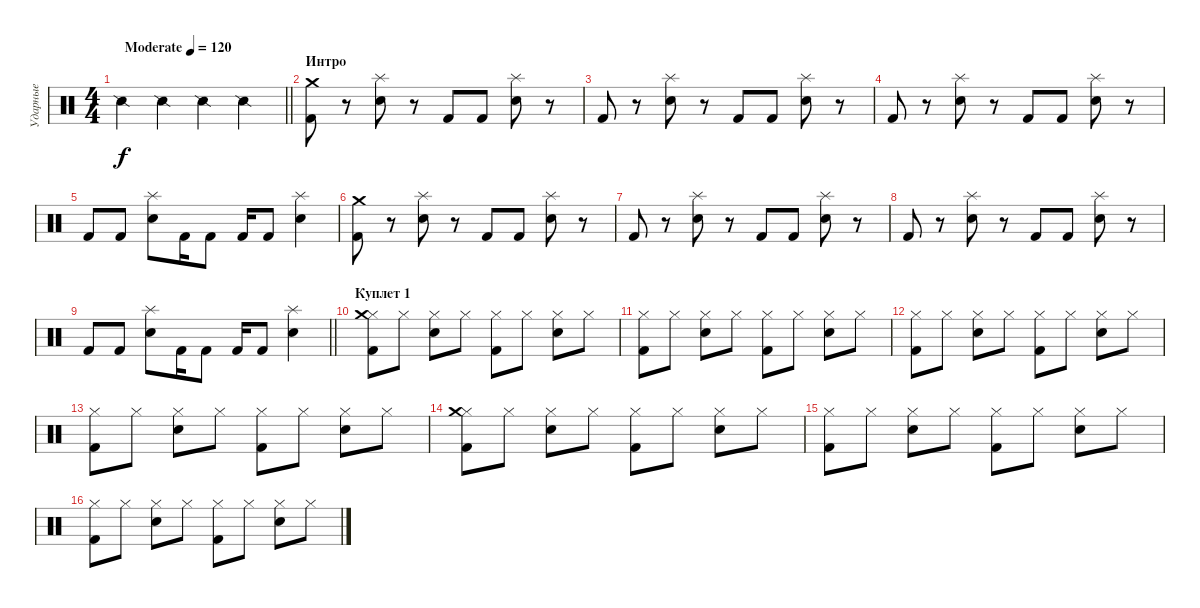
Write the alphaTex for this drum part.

\track ("Ударные" "Ударные") {instrument percussion}
\staff {score}
\articulation defaults
\ts (4 4)
\tempo (120 "Moderate")
\clef neutral
\barLineRight lightlight
\ks c "Snare (side stick) 2".4{dy f} "Snare (side stick) 2".4 "Snare (side stick) 2".4 "Snare (side stick) 2".4
|
\section ("" "Интро")
("Kick (hit) 2" "Crash medium (hit)").8 r.8 ("Electric Snare (hit)" "Splash (hit)").8 r.8 "Kick (hit) 2".8 "Kick (hit) 2".8 ("Electric Snare (hit)" "Splash (hit)").8 r.8 |
"Kick (hit) 2".8 r.8 ("Electric Snare (hit)" "Splash (hit)").8 r.8 "Kick (hit) 2".8 "Kick (hit) 2".8 ("Electric Snare (hit)" "Splash (hit)").8 r.8 |
"Kick (hit) 2".8 r.8 ("Electric Snare (hit)" "Splash (hit)").8 r.8 "Kick (hit) 2".8 "Kick (hit) 2".8 ("Electric Snare (hit)" "Splash (hit)").8 r.8 |
"Kick (hit) 2".8 "Kick (hit) 2".8 ("Electric Snare (hit)" "Splash (hit)").8 "Kick (hit) 2".16 "Kick (hit) 2".8 "Kick (hit) 2".16 "Kick (hit) 2".8 ("Electric Snare (hit)" "Splash (hit)").4 |
("Kick (hit) 2" "Crash medium (hit)").8 r.8 ("Electric Snare (hit)" "Splash (hit)").8 r.8 "Kick (hit) 2".8 "Kick (hit) 2".8 ("Electric Snare (hit)" "Splash (hit)").8 r.8 |
"Kick (hit) 2".8 r.8 ("Electric Snare (hit)" "Splash (hit)").8 r.8 "Kick (hit) 2".8 "Kick (hit) 2".8 ("Electric Snare (hit)" "Splash (hit)").8 r.8 |
"Kick (hit) 2".8 r.8 ("Electric Snare (hit)" "Splash (hit)").8 r.8 "Kick (hit) 2".8 "Kick (hit) 2".8 ("Electric Snare (hit)" "Splash (hit)").8 r.8 |
\barLineRight lightlight "Kick (hit) 2".8 "Kick (hit) 2".8
("Electric Snare (hit)" "Splash (hit)").8 "Kick (hit) 2".16 "Kick (hit) 2".8 "Kick (hit) 2".16 "Kick (hit) 2".8 ("Electric Snare (hit)" "Splash (hit)").4 |
\section ("" "Куплет 1")
("Hi-Hat (closed)" "Kick (hit) 2" "Crash medium (hit)").8 "Hi-Hat (closed)".8 ("Hi-Hat (closed)" "Electric Snare (hit)").8 "Hi-Hat (closed)".8 ("Hi-Hat (closed)" "Kick (hit) 2").8 "Hi-Hat (closed)".8 ("Hi-Hat (closed)" "Electric Snare (hit)").8 "Hi-Hat (closed)".8 |
("Hi-Hat (closed)" "Kick (hit) 2").8 "Hi-Hat (closed)".8 ("Hi-Hat (closed)" "Electric Snare (hit)").8 "Hi-Hat (closed)".8 ("Hi-Hat (closed)" "Kick (hit) 2").8 "Hi-Hat (closed)".8 ("Hi-Hat (closed)" "Electric Snare (hit)").8 "Hi-Hat (closed)".8 |
("Hi-Hat (closed)" "Kick (hit) 2").8 "Hi-Hat (closed)".8 ("Hi-Hat (closed)" "Electric Snare (hit)").8 "Hi-Hat (closed)".8 ("Hi-Hat (closed)" "Kick (hit) 2").8 "Hi-Hat (closed)".8 ("Hi-Hat (closed)" "Electric Snare (hit)").8 "Hi-Hat (closed)".8 |
("Hi-Hat (closed)" "Kick (hit) 2").8 "Hi-Hat (closed)".8 ("Hi-Hat (closed)" "Electric Snare (hit)").8 "Hi-Hat (closed)".8 ("Hi-Hat (closed)" "Kick (hit) 2").8 "Hi-Hat (closed)".8 ("Hi-Hat (closed)" "Electric Snare (hit)").8 "Hi-Hat (closed)".8 |
("Hi-Hat (closed)" "Kick (hit) 2" "Crash medium (hit)").8 "Hi-Hat (closed)".8 ("Hi-Hat (closed)" "Electric Snare (hit)").8 "Hi-Hat (closed)".8 ("Hi-Hat (closed)" "Kick (hit) 2").8 "Hi-Hat (closed)".8 ("Hi-Hat (closed)" "Electric Snare (hit)").8 "Hi-Hat (closed)".8 |
("Hi-Hat (closed)" "Kick (hit) 2").8 "Hi-Hat (closed)".8 ("Hi-Hat (closed)" "Electric Snare (hit)").8 "Hi-Hat (closed)".8 ("Hi-Hat (closed)" "Kick (hit) 2").8 "Hi-Hat (closed)".8 ("Hi-Hat (closed)" "Electric Snare (hit)").8 "Hi-Hat (closed)".8 |
("Hi-Hat (closed)" "Kick (hit) 2").8 "Hi-Hat (closed)".8 ("Hi-Hat (closed)" "Electric Snare (hit)").8 "Hi-Hat (closed)".8 ("Hi-Hat (closed)" "Kick (hit) 2").8 "Hi-Hat (closed)".8 ("Hi-Hat (closed)" "Electric Snare (hit)").8 "Hi-Hat (closed)".8
